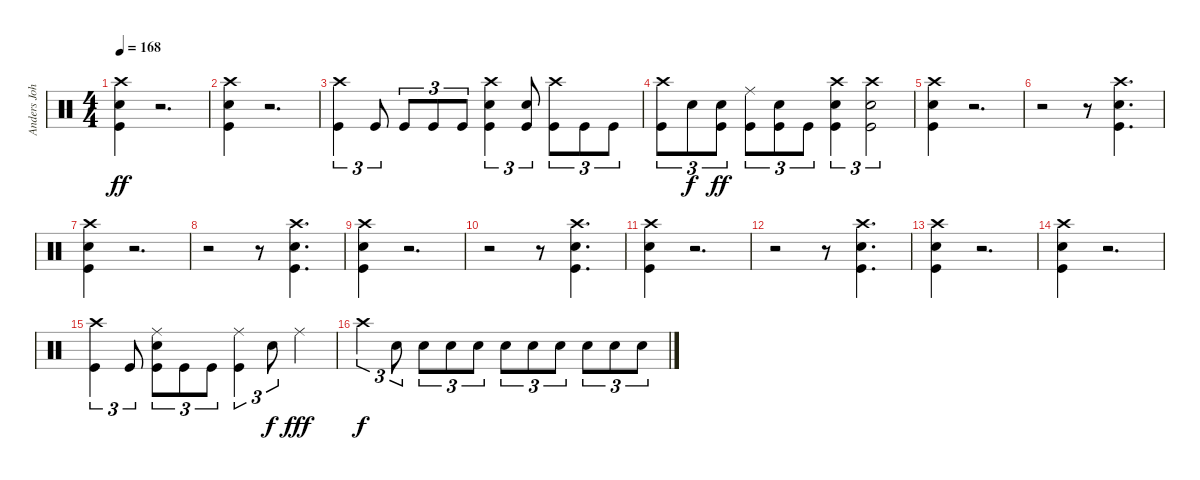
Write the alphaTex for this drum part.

\track ("Anders Johansson (Drums)" "Anders Joh") {instrument percussion}
\staff {score}
\articulation defaults
\ts (4 4)
\tempo 168
\clef neutral
\ks c
("Crash high (hit)" "Electric Snare (hit)" "Kick (hit)").4{dy ff} r.2{d} |
("Crash high (hit)" "Electric Snare (hit)" "Kick (hit)").4 r.2{d} |
("Crash high (hit)" "Kick (hit)").4{tu (3 2)} "Kick (hit)".8{tu (3 2)} "Kick (hit)".8{tu (3 2)} "Kick (hit)".8{tu (3 2)} "Kick (hit)".8{tu (3 2)} ("Crash high (hit)" "Electric Snare (hit)" "Kick (hit)").4{tu (3 2)} ("Electric Snare (hit)" "Kick (hit)").8{tu (3 2)} ("Crash high (hit)" "Kick (hit)").8{tu (3 2)} "Kick (hit)".8{tu (3 2)} "Kick (hit)".8{tu (3 2)} |
("Crash high (hit)" "Kick (hit)").8{tu (3 2)} "Electric Snare (hit)".8{tu (3 2) dy f} ("Electric Snare (hit)" "Kick (hit)").8{tu (3 2) dy ff} ("Ride (middle)" "Kick (hit)").8{tu (3 2)} ("Electric Snare (hit)" "Kick (hit)").8{tu (3 2)} "Kick (hit)".8{tu (3 2)} ("Crash high (hit)" "Electric Snare (hit)" "Kick (hit)").4{tu (3 2)} ("Crash high (hit)" "Electric Snare (hit)" "Kick (hit)").2{tu (3 2)} |
("Crash high (hit)" "Electric Snare (hit)" "Kick (hit)").4 r.2{d} |
r.2 r.8 ("Crash high (hit)" "Electric Snare (hit)" "Kick (hit)").4{d} |
("Crash high (hit)" "Electric Snare (hit)" "Kick (hit)").4 r.2{d} |
r.2 r.8 ("Crash high (hit)" "Electric Snare (hit)" "Kick (hit)").4{d} |
("Crash high (hit)" "Electric Snare (hit)" "Kick (hit)").4 r.2{d} |
r.2 r.8 ("Crash high (hit)" "Electric Snare (hit)" "Kick (hit)").4{d} |
("Crash high (hit)" "Electric Snare (hit)" "Kick (hit)").4 r.2{d} |
r.2 r.8 ("Crash high (hit)" "Electric Snare (hit)" "Kick (hit)").4{d} |
("Crash high (hit)" "Electric Snare (hit)" "Kick (hit)").4 r.2{d} |
("Crash high (hit)" "Electric Snare (hit)" "Kick (hit)").4 r.2{d} |
("Crash high (hit)" "Kick (hit)").4{tu (3 2)} "Kick (hit)".8{tu (3 2)} ("Ride (middle)" "Electric Snare (hit)" "Kick (hit)").8{tu (3 2)} "Kick (hit)".8{tu (3 2)} "Kick (hit)".8{tu (3 2)} ("Ride (middle)" "Kick (hit)").4{tu (3 2)} "Electric Snare (hit)".8{tu (3 2) dy f} "Ride (middle)".4{dy fff} |
"Crash high (hit)".4{tu (3 2) dy f} "Electric Snare (hit)".8{tu (3 2)} "Electric Snare (hit)".8{tu (3 2)} "Electric Snare (hit)".8{tu (3 2)} "Electric Snare (hit)".8{tu (3 2)} "Electric Snare (hit)".8{tu (3 2)} "Electric Snare (hit)".8{tu (3 2)} "Electric Snare (hit)".8{tu (3 2)} "Electric Snare (hit)".8{tu (3 2)} "Electric Snare (hit)".8{tu (3 2)} "Electric Snare (hit)".8{tu (3 2)}
